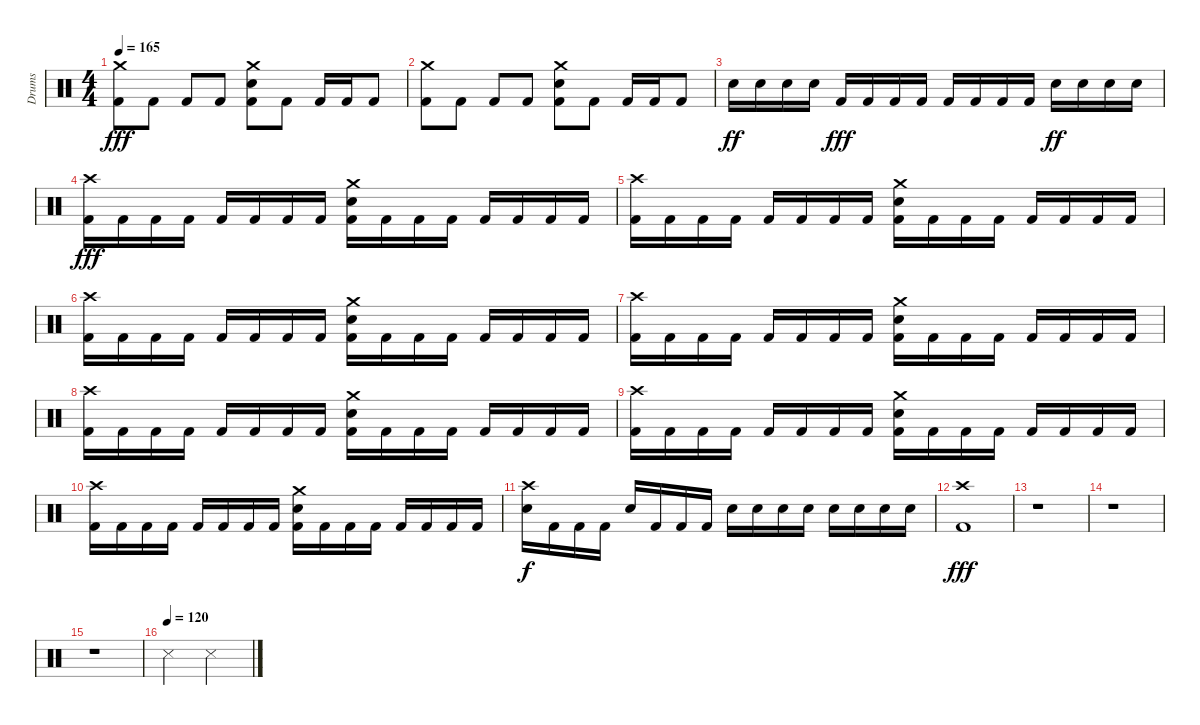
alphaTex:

\track ("Drums" "Drums") {instrument percussion}
\staff {score}
\articulation defaults
\ts (4 4)
\tempo 165
\clef neutral
\ks c
("Crash medium (hit)" "Kick (hit) 2").8{dy fff} "Kick (hit) 2".8 "Kick (hit) 2".8 "Kick (hit) 2".8 ("Crash medium (hit)" "Snare (hit) 2" "Kick (hit) 2").8 "Kick (hit) 2".8 "Kick (hit) 2".16 "Kick (hit) 2".16 "Kick (hit) 2".8 |
("Crash medium (hit)" "Kick (hit) 2").8 "Kick (hit) 2".8 "Kick (hit) 2".8 "Kick (hit) 2".8 ("Crash medium (hit)" "Snare (hit) 2" "Kick (hit) 2").8 "Kick (hit) 2".8 "Kick (hit) 2".16 "Kick (hit) 2".16 "Kick (hit) 2".8 |
"Snare (hit) 2".16{dy ff} "Snare (hit) 2".16 "Snare (hit) 2".16 "Snare (hit) 2".16 "Kick (hit) 2".16{dy fff} "Kick (hit) 2".16 "Kick (hit) 2".16 "Kick (hit) 2".16 "Kick (hit) 2".16 "Kick (hit) 2".16 "Kick (hit) 2".16 "Kick (hit) 2".16 "Snare (hit) 2".16{dy ff} "Snare (hit) 2".16 "Snare (hit) 2".16 "Snare (hit) 2".16 |
("Crash high (hit)" "Kick (hit) 2").16{dy fff} "Kick (hit) 2".16 "Kick (hit) 2".16 "Kick (hit) 2".16 "Kick (hit) 2".16 "Kick (hit) 2".16 "Kick (hit) 2".16 "Kick (hit) 2".16 ("Crash medium (hit)" "Snare (hit) 2" "Kick (hit) 2").16 "Kick (hit) 2".16 "Kick (hit) 2".16 "Kick (hit) 2".16 "Kick (hit) 2".16 "Kick (hit) 2".16 "Kick (hit) 2".16 "Kick (hit) 2".16 |
("Crash high (hit)" "Kick (hit) 2").16 "Kick (hit) 2".16 "Kick (hit) 2".16 "Kick (hit) 2".16 "Kick (hit) 2".16 "Kick (hit) 2".16 "Kick (hit) 2".16 "Kick (hit) 2".16 ("Crash medium (hit)" "Snare (hit) 2" "Kick (hit) 2").16 "Kick (hit) 2".16 "Kick (hit) 2".16 "Kick (hit) 2".16 "Kick (hit) 2".16 "Kick (hit) 2".16 "Kick (hit) 2".16 "Kick (hit) 2".16 |
("Crash high (hit)" "Kick (hit) 2").16 "Kick (hit) 2".16 "Kick (hit) 2".16 "Kick (hit) 2".16 "Kick (hit) 2".16 "Kick (hit) 2".16 "Kick (hit) 2".16 "Kick (hit) 2".16 ("Crash medium (hit)" "Snare (hit) 2" "Kick (hit) 2").16 "Kick (hit) 2".16 "Kick (hit) 2".16 "Kick (hit) 2".16 "Kick (hit) 2".16 "Kick (hit) 2".16 "Kick (hit) 2".16 "Kick (hit) 2".16 |
("Crash high (hit)" "Kick (hit) 2").16 "Kick (hit) 2".16 "Kick (hit) 2".16 "Kick (hit) 2".16 "Kick (hit) 2".16 "Kick (hit) 2".16 "Kick (hit) 2".16 "Kick (hit) 2".16 ("Crash medium (hit)" "Snare (hit) 2" "Kick (hit) 2").16 "Kick (hit) 2".16 "Kick (hit) 2".16 "Kick (hit) 2".16 "Kick (hit) 2".16 "Kick (hit) 2".16 "Kick (hit) 2".16 "Kick (hit) 2".16 |
("Crash high (hit)" "Kick (hit) 2").16 "Kick (hit) 2".16 "Kick (hit) 2".16 "Kick (hit) 2".16 "Kick (hit) 2".16 "Kick (hit) 2".16 "Kick (hit) 2".16 "Kick (hit) 2".16 ("Crash medium (hit)" "Snare (hit) 2" "Kick (hit) 2").16 "Kick (hit) 2".16 "Kick (hit) 2".16 "Kick (hit) 2".16 "Kick (hit) 2".16 "Kick (hit) 2".16 "Kick (hit) 2".16 "Kick (hit) 2".16 |
("Crash high (hit)" "Kick (hit) 2").16 "Kick (hit) 2".16 "Kick (hit) 2".16 "Kick (hit) 2".16 "Kick (hit) 2".16 "Kick (hit) 2".16 "Kick (hit) 2".16 "Kick (hit) 2".16 ("Crash medium (hit)" "Snare (hit) 2" "Kick (hit) 2").16 "Kick (hit) 2".16 "Kick (hit) 2".16 "Kick (hit) 2".16 "Kick (hit) 2".16 "Kick (hit) 2".16 "Kick (hit) 2".16 "Kick (hit) 2".16 |
("Crash high (hit)" "Kick (hit) 2").16 "Kick (hit) 2".16 "Kick (hit) 2".16 "Kick (hit) 2".16 "Kick (hit) 2".16 "Kick (hit) 2".16 "Kick (hit) 2".16 "Kick (hit) 2".16 ("Crash medium (hit)" "Snare (hit) 2" "Kick (hit) 2").16 "Kick (hit) 2".16 "Kick (hit) 2".16 "Kick (hit) 2".16 "Kick (hit) 2".16 "Kick (hit) 2".16 "Kick (hit) 2".16 "Kick (hit) 2".16 |
("Crash high (hit)" "Snare (hit) 2").16{dy f} "Kick (hit) 2".16 "Kick (hit) 2".16 "Kick (hit) 2".16 "Snare (hit) 2".16 "Kick (hit) 2".16 "Kick (hit) 2".16 "Kick (hit) 2".16 "Snare (hit) 2".16 "Snare (hit) 2".16 "Snare (hit) 2".16 "Snare (hit) 2".16 "Snare (hit) 2".16 "Snare (hit) 2".16 "Snare (hit) 2".16 "Snare (hit) 2".16 |
("Crash high (hit)" "Kick (hit) 2").1{dy fff} |
r.1 |
r.1 |
r.1 |
\tempo (120)
"Metronome (hit)".2 "Snare (side stick) 3".2
